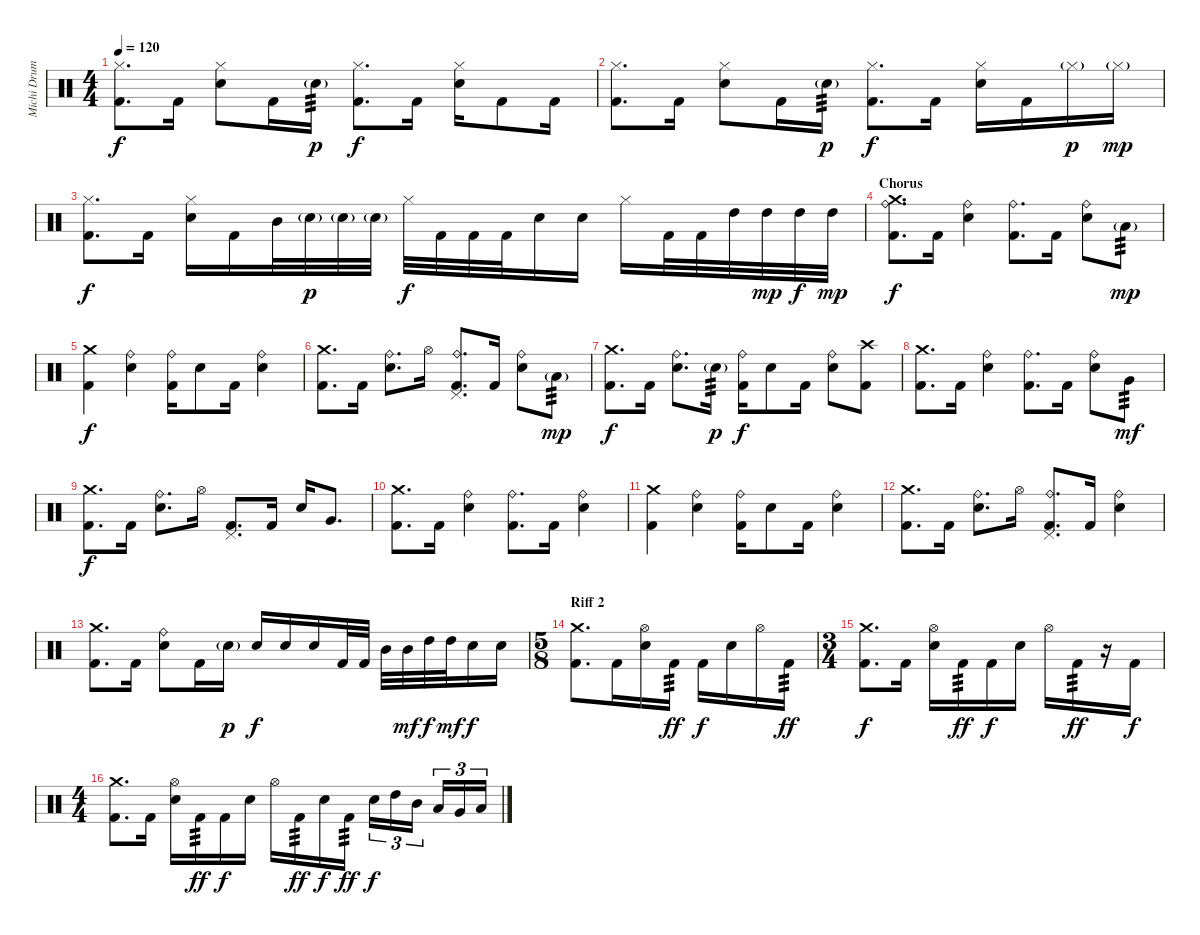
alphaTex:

\track ("Michi Drums" "Michi Drum") {instrument percussion}
\staff {score}
\articulation defaults
\ts (4 4)
\tempo 120
\clef neutral
\ks c
("Hi-Hat (closed)" "Kick (hit) 2").8{d dy f} "Kick (hit) 2".16 ("Hi-Hat (closed)" "Electric Snare (hit)").8 "Kick (hit) 2".16 "Electric Snare (hit)"{g}.16{tp 3 dy p} ("Hi-Hat (closed)" "Kick (hit) 2").8{d dy f} "Kick (hit) 2".16 ("Hi-Hat (closed)" "Electric Snare (hit)").16 "Kick (hit) 2".8 "Kick (hit) 2".16 |
("Hi-Hat (closed)" "Kick (hit) 2").8{d} "Kick (hit) 2".16 ("Hi-Hat (closed)" "Electric Snare (hit)").8 "Kick (hit) 2".16 "Electric Snare (hit)"{g}.16{tp 3 dy p} ("Hi-Hat (closed)" "Kick (hit) 2").8{d dy f} "Kick (hit) 2".16 ("Hi-Hat (closed)" "Electric Snare (hit)").16 "Kick (hit) 2".16 "Hi-Hat (closed)"{g}.16{dy p} "Hi-Hat (closed)"{g}.16{dy mp} |
("Hi-Hat (closed)" "Kick (hit) 2").8{d dy f} "Kick (hit) 2".16 ("Hi-Hat (closed)" "Electric Snare (hit)").16 "Kick (hit) 2".16 "Mid Tom (hit)".32 "Electric Snare (hit)"{g}.32{dy p} "Electric Snare (hit)"{g}.32 "Electric Snare (hit)"{g}.32 "Hi-Hat (closed)".32{dy f} "Kick (hit) 2".32 "Kick (hit) 2".32 "Kick (hit) 2".32 "Electric Snare (hit)".16 "Electric Snare (hit)".16 "Hi-Hat (closed)".16 "Kick (hit) 2".32 "Kick (hit) 2".32 "High Tom (hit)".32 "High Tom (hit)".32{dy mp} "High Tom (hit)".32{dy f} "High Tom (hit)".32{dy mp} |
\section ("" "Chorus")
("Ride (bell)" "Crash medium (hit)" "Kick (hit) 2").8{d dy f} "Kick (hit) 2".16 ("Ride (bell)" "Electric Snare (hit)").4 ("Ride (bell)" "Kick (hit) 2").8{d} "Kick (hit) 2".16 ("Ride (bell)" "Electric Snare (hit)").8 "Low Floor Tom (hit)"{g}.8{tp 3 dy mp} |
("Crash medium (hit)" "Kick (hit) 2").4{dy f} ("Ride (bell)" "Electric Snare (hit)").4 ("Ride (bell)" "Kick (hit) 2").16 "Electric Snare (hit)".8 "Kick (hit) 2".16 ("Ride (bell)" "Electric Snare (hit)").4 |
("Crash medium (hit)" "Kick (hit) 2").8{d} "Kick (hit) 2".16 ("Ride (bell)" "Electric Snare (hit)").8{d} "Hi-Hat (open)".16 ("Ride (bell)" "Pedal Hi-Hat (hit)" "Kick (hit) 2").8{d} "Kick (hit) 2".16 ("Ride (bell)" "Electric Snare (hit)").8 "Low Floor Tom (hit)"{g}.8{tp 3 dy mp} |
("Crash medium (hit)" "Kick (hit) 2").8{d dy f} "Kick (hit) 2".16 ("Ride (bell)" "Electric Snare (hit)").8{d} "Electric Snare (hit)"{g}.16{tp 3 dy p} ("Ride (bell)" "Kick (hit) 2").16{dy f} "Electric Snare (hit)".8 "Kick (hit) 2".16 ("Ride (bell)" "Electric Snare (hit)").8 ("Crash high (hit)" "Kick (hit) 2").8 |
("Crash medium (hit)" "Kick (hit) 2").8{d} "Kick (hit) 2".16 ("Ride (bell)" "Electric Snare (hit)").4 ("Ride (bell)" "Kick (hit) 2").8{d} "Kick (hit) 2".16 ("Ride (bell)" "Electric Snare (hit)").8 "Very Low Tom (hit)".8{tp 3 dy mf} |
("Crash medium (hit)" "Kick (hit) 2").8{d dy f} "Kick (hit) 2".16 ("Ride (bell)" "Electric Snare (hit)").8{d} "Hi-Hat (open)".16 ("Pedal Hi-Hat (hit)" "Kick (hit) 2").8{d} "Kick (hit) 2".16 "Electric Snare (hit)".16 "Very Low Tom (hit)".8{d} |
("Crash medium (hit)" "Kick (hit) 2").8{d} "Kick (hit) 2".16 ("Ride (bell)" "Electric Snare (hit)").4 ("Ride (bell)" "Kick (hit) 2").8{d} "Kick (hit) 2".16 ("Ride (bell)" "Electric Snare (hit)").4 |
("Crash medium (hit)" "Kick (hit) 2").4 ("Ride (bell)" "Electric Snare (hit)").4 ("Ride (bell)" "Kick (hit) 2").16 "Electric Snare (hit)".8 "Kick (hit) 2".16 ("Ride (bell)" "Electric Snare (hit)").4 |
("Crash medium (hit)" "Kick (hit) 2").8{d} "Kick (hit) 2".16 ("Ride (bell)" "Electric Snare (hit)").8{d} "Hi-Hat (open)".16 ("Ride (bell)" "Pedal Hi-Hat (hit)" "Kick (hit) 2").8{d} "Kick (hit) 2".16 ("Ride (bell)" "Electric Snare (hit)").4 |
("Crash medium (hit)" "Kick (hit) 2").8{d} "Kick (hit) 2".16 ("Ride (bell)" "Electric Snare (hit)").8 "Kick (hit) 2".16 "Electric Snare (hit)"{g}.16{dy p} "Electric Snare (hit)".16{dy f} "Electric Snare (hit)".16 "Electric Snare (hit)".16 "Kick (hit) 2".32 "Kick (hit) 2".32 "Mid Tom (hit)".32 "Mid Tom (hit)".32{dy mf} "High Tom (hit)".32{dy f} "High Tom (hit)".32{dy mf} "Electric Snare (hit)".16{dy f} "Electric Snare (hit)".16 |
\ts (5 8)
\section ("" "Riff 2")
("Crash medium (hit)" "Kick (hit) 2").8{d} "Kick (hit) 2".16 ("Hi-Hat (open)" "Electric Snare (hit)").16 "Kick (hit) 2".16{tp 3 dy ff} "Kick (hit) 2".16{dy f} "Electric Snare (hit)".16 "Hi-Hat (open)".16 "Kick (hit) 2".16{tp 3 dy ff} |
\ts (3 4)
("Crash medium (hit)" "Kick (hit) 2").8{d dy f} "Kick (hit) 2".16 ("Hi-Hat (open)" "Electric Snare (hit)").16 "Kick (hit) 2".16{tp 3 dy ff} "Kick (hit) 2".16{dy f} "Electric Snare (hit)".16 "Hi-Hat (open)".16 "Kick (hit) 2".16{tp 3 dy ff} r.16 "Kick (hit) 2".16{dy f} |
\ts (4 4)
("Crash medium (hit)" "Kick (hit) 2").8{d} "Kick (hit) 2".16 ("Hi-Hat (open)" "Electric Snare (hit)").16 "Kick (hit) 2".16{tp 3 dy ff} "Kick (hit) 2".16{dy f} "Electric Snare (hit)".16 "Hi-Hat (open)".16 "Kick (hit) 2".16{tp 3 dy ff} "Electric Snare (hit)".16{dy f} "Kick (hit) 2".16{tp 3 dy ff} "Electric Snare (hit)".16{tu (3 2) dy f} "High Tom (hit)".16{tu (3 2)} "Mid Tom (hit)".16{tu (3 2)} "Low Tom (hit)".16{tu (3 2)} "Very Low Tom (hit)".16{tu (3 2)} "Low Floor Tom (hit)".16{tu (3 2)}
